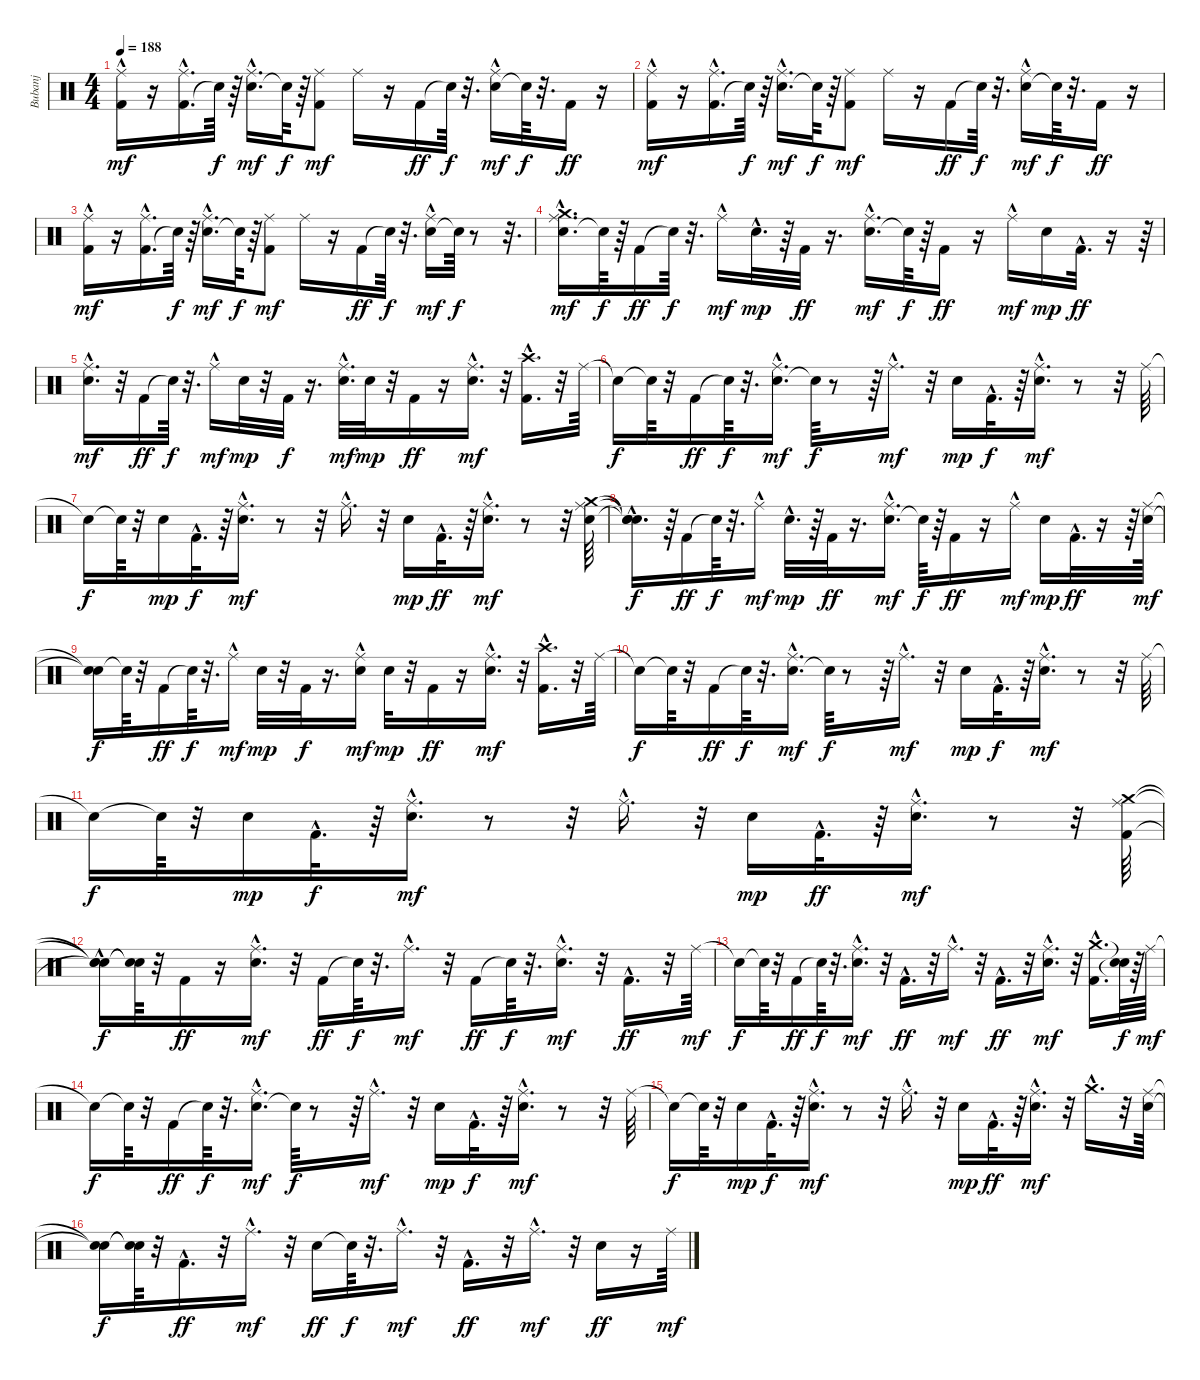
\track ("Bubanj" "Bubanj") {instrument percussion}
\staff {score}
\articulation defaults
\ts (4 4)
\tempo 188
\clef neutral
\ks c
("Kick (hit) 2" "Ride (middle)"{hac}).16{dy mf} r.16 ("Kick (hit) 2"{hac} "Ride (middle)").16{d} "Snare (hit)"{t}.64{dy f} r.64 ("Electric Snare (hit)"{hac} "Ride (middle)").16{d dy mf} "Snare (hit)"{t}.64{dy f} r.64 ("Kick (hit) 2" "Ride (middle)").8{dy mf} "Ride (middle)".16 r.16 "Kick (hit) 2".16{dy ff} "Snare (hit)"{t}.64{dy f} r.32{d} ("Electric Snare (hit)" "Ride (middle)"{hac}).16{dy mf} "Snare (hit)"{t}.64{dy f} r.32{d} "Kick (hit) 2".16{dy ff} r.16 |
("Kick (hit) 2" "Ride (middle)"{hac}).16{dy mf} r.16 ("Kick (hit) 2"{hac} "Ride (middle)").16{d} "Snare (hit)"{t}.64{dy f} r.64 ("Electric Snare (hit)"{hac} "Ride (middle)").16{d dy mf} "Snare (hit)"{t}.64{dy f} r.64 ("Kick (hit) 2" "Ride (middle)").8{dy mf} "Ride (middle)".16 r.16 "Kick (hit) 2".16{dy ff} "Snare (hit)"{t}.64{dy f} r.32{d} ("Electric Snare (hit)" "Ride (middle)"{hac}).16{dy mf} "Snare (hit)"{t}.64{dy f} r.32{d} "Kick (hit) 2".16{dy ff} r.16 |
("Kick (hit) 2" "Ride (middle)"{hac}).16{dy mf} r.16 ("Kick (hit) 2"{hac} "Ride (middle)").16{d} "Snare (hit)"{t}.64{dy f} r.64 ("Electric Snare (hit)"{hac} "Ride (middle)").16{d dy mf} "Snare (hit)"{t}.64{dy f} r.64 ("Kick (hit) 2" "Ride (middle)").8{dy mf} "Ride (middle)".16 r.16 "Kick (hit) 2".16{dy ff} "Snare (hit)"{t}.64{dy f} r.32{d} ("Electric Snare (hit)" "Ride (middle)"{hac}).16{dy mf} "Snare (hit)"{t}.64{dy f} r.8 r.32{d} |
("Electric Snare (hit)"{hac} "Crash medium (hit)"{hac} "Ride (middle)"{hac}).16{d dy mf} "Snare (hit)"{t}.64{dy f} r.64 "Kick (hit) 2".16{dy ff} "Snare (hit)"{t}.64{dy f} r.32{d} "Ride (middle)"{hac}.16{dy mf} "Electric Snare (hit)"{hac}.32{d dy mp} r.64 "Kick (hit) 2".32{dy ff} r.16{d} ("Electric Snare (hit)"{hac} "Ride (middle)"{hac}).16{d dy mf} "Snare (hit)"{t}.64{dy f} r.64 "Kick (hit) 2".16{dy ff} r.16 "Ride (middle)"{hac}.16{dy mf} "Electric Snare (hit)".16{dy mp} "Kick (hit) 2"{hac}.32{d dy ff} r.16 r.64 |
("Electric Snare (hit)" "Ride (middle)"{hac}).16{d dy mf} r.32 "Kick (hit) 2".16{dy ff} "Snare (hit)"{t}.64{dy f} r.32{d} "Ride (middle)"{hac}.16{dy mf} "Electric Snare (hit)".32{dy mp} r.32 "Kick (hit) 2".32{dy f} r.16{d} ("Electric Snare (hit)" "Ride (middle)"{hac}).32{d dy mf} "Electric Snare (hit)".32{dy mp} r.32 "Kick (hit) 2".16{dy ff} r.16 ("Electric Snare (hit)"{hac} "Ride (middle)"{hac}).16{d dy mf} r.32 ("Kick (hit) 2" "Crash high (hit)"{hac}).16{d} r.32 "Ride (middle)".64 |
"Snare (hit)"{t}.16{dy f} "Snare (hit)"{t}.64 r.32 "Kick (hit) 2".16{dy ff} "Snare (hit)"{t}.64{dy f} r.32{d} ("Electric Snare (hit)"{hac} "Ride (middle)"{hac}).16{d dy mf} "Snare (hit)"{t}.64{dy f} r.8 r.64 "Ride (middle)"{hac}.16{d dy mf} r.32 "Electric Snare (hit)".16{dy mp} "Kick (hit) 2"{hac}.32{d dy f} r.64 ("Electric Snare (hit)"{hac} "Ride (middle)"{hac}).16{d dy mf} r.8 r.32 "Ride (middle)".64 |
"Snare (hit)"{t}.16{dy f} "Snare (hit)"{t}.64 r.32 "Electric Snare (hit)".16{dy mp} "Kick (hit) 2"{hac}.32{d dy f} r.64 ("Electric Snare (hit)"{hac} "Ride (middle)"{hac}).16{d dy mf} r.8 r.32 "Ride (middle)"{hac}.16{d} r.32 "Electric Snare (hit)".16{dy mp} "Kick (hit) 2"{hac}.32{d dy ff} r.64 ("Electric Snare (hit)"{hac} "Ride (middle)"{hac}).16{d dy mf} r.8 r.32 ("Electric Snare (hit)" "Ride (middle)" "Crash medium (hit)").64 |
("Snare (hit)"{hac t} "Snare (hit)"{t} "Snare (hit)"{t}).16{d dy f} r.64 "Kick (hit) 2".16{dy ff} "Snare (hit)"{t}.64{dy f} r.32{d} "Ride (middle)"{hac}.16{dy mf} "Electric Snare (hit)"{hac}.32{d dy mp} r.64 "Kick (hit) 2".32{dy ff} r.16{d} ("Electric Snare (hit)"{hac} "Ride (middle)"{hac}).16{d dy mf} "Snare (hit)"{t}.64{dy f} r.64 "Kick (hit) 2".16{dy ff} r.16 "Ride (middle)"{hac}.16{dy mf} "Electric Snare (hit)".16{dy mp} "Kick (hit) 2"{hac}.32{d dy ff} r.16 r.64 ("Electric Snare (hit)" "Ride (middle)").64{dy mf} |
("Snare (hit)"{t} "Snare (hit)"{t}).16{dy f} "Snare (hit)"{t}.64 r.32 "Kick (hit) 2".16{dy ff} "Snare (hit)"{t}.64{dy f} r.32{d} "Ride (middle)"{hac}.16{dy mf} "Electric Snare (hit)".32{dy mp} r.32 "Kick (hit) 2".32{dy f} r.16{d} ("Electric Snare (hit)" "Ride (middle)"{hac}).16{dy mf} "Electric Snare (hit)".32{dy mp} r.32 "Kick (hit) 2".16{dy ff} r.16 ("Electric Snare (hit)"{hac} "Ride (middle)"{hac}).16{d dy mf} r.32 ("Kick (hit) 2" "Crash high (hit)"{hac}).16{d} r.32 "Ride (middle)".64 |
"Snare (hit)"{t}.16{dy f} "Snare (hit)"{t}.64 r.32 "Kick (hit) 2".16{dy ff} "Snare (hit)"{t}.64{dy f} r.32{d} ("Electric Snare (hit)"{hac} "Ride (middle)"{hac}).16{d dy mf} "Snare (hit)"{t}.64{dy f} r.8 r.64 "Ride (middle)"{hac}.16{d dy mf} r.32 "Electric Snare (hit)".16{dy mp} "Kick (hit) 2"{hac}.32{d dy f} r.64 ("Electric Snare (hit)"{hac} "Ride (middle)"{hac}).16{d dy mf} r.8 r.32 "Ride (middle)".64 |
"Snare (hit)"{t}.16{dy f} "Snare (hit)"{t}.64 r.32 "Electric Snare (hit)".16{dy mp} "Kick (hit) 2"{hac}.32{d dy f} r.64 ("Electric Snare (hit)"{hac} "Ride (middle)"{hac}).16{d dy mf} r.8 r.32 "Ride (middle)"{hac}.16{d} r.32 "Electric Snare (hit)".16{dy mp} "Kick (hit) 2"{hac}.32{d dy ff} r.64 ("Electric Snare (hit)"{hac} "Ride (middle)"{hac}).16{d dy mf} r.8 r.32 ("Kick (hit) 2" "Ride (middle)" "Crash medium (hit)").64 |
("Snare (hit)"{hac t} "Snare (hit)"{t} "Snare (hit)"{t}).16{dy f} ("Snare (hit)"{t} "Snare (hit)"{t}).64 r.32 "Kick (hit) 2".16{dy ff} r.16 ("Electric Snare (hit)"{hac} "Ride (middle)"{hac}).16{d dy mf} r.32 "Kick (hit) 2".16{dy ff} "Snare (hit)"{t}.64{dy f} r.32{d} "Ride (middle)"{hac}.16{d dy mf} r.32 "Kick (hit) 2".16{dy ff} "Snare (hit)"{t}.64{dy f} r.32{d} ("Electric Snare (hit)" "Ride (middle)"{hac}).16{d dy mf} r.32 "Kick (hit) 2"{hac}.16{d dy ff} r.32 "Ride (middle)".64{dy mf} |
"Snare (hit)"{t}.16{dy f} "Snare (hit)"{t}.64 r.32 "Kick (hit) 2".16{dy ff} "Snare (hit)"{t}.64{dy f} r.32{d} ("Electric Snare (hit)" "Ride (middle)"{hac}).16{d dy mf} r.32 "Kick (hit) 2"{hac}.16{d dy ff} r.32 "Ride (middle)"{hac}.16{d dy mf} r.32 "Kick (hit) 2"{hac}.16{d dy ff} r.32 ("Electric Snare (hit)" "Ride (middle)"{hac}).16{d dy mf} r.32 ("Kick (hit) 2"{hac} "Crash medium (hit)"{hac}).16{d} ("Snare (hit)"{t} "Snare (hit)"{t}).64{dy f} r.64 "Ride (middle)".64{dy mf} |
"Snare (hit)"{t}.16{dy f} "Snare (hit)"{t}.64 r.32 "Kick (hit) 2".16{dy ff} "Snare (hit)"{t}.64{dy f} r.32{d} ("Electric Snare (hit)"{hac} "Ride (middle)"{hac}).16{d dy mf} "Snare (hit)"{t}.64{dy f} r.8 r.64 "Ride (middle)"{hac}.16{d dy mf} r.32 "Electric Snare (hit)".16{dy mp} "Kick (hit) 2"{hac}.32{d dy f} r.64 ("Electric Snare (hit)"{hac} "Ride (middle)"{hac}).16{d dy mf} r.8 r.32 "Ride (middle)".64 |
"Snare (hit)"{t}.16{dy f} "Snare (hit)"{t}.64 r.32 "Electric Snare (hit)".16{dy mp} "Kick (hit) 2"{hac}.32{d dy f} r.64 ("Electric Snare (hit)"{hac} "Ride (middle)"{hac}).16{d dy mf} r.8 r.32 "Ride (middle)"{hac}.16{d} r.32 "Electric Snare (hit)".16{dy mp} "Kick (hit) 2"{hac}.32{d dy ff} r.64 ("Electric Snare (hit)"{hac} "Ride (middle)"{hac}).16{d dy mf} r.32 "Crash medium (hit)"{hac}.16{d} r.32 ("Electric Snare (hit)" "Ride (middle)").64 |
("Snare (hit)"{t} "Snare (hit)"{t}).16{dy f} ("Snare (hit)"{t} "Snare (hit)"{t}).64 r.32 "Kick (hit) 2"{hac}.16{d dy ff} r.32 "Ride (middle)"{hac}.16{d dy mf} r.32 "Electric Snare (hit)".16{dy ff} "Snare (hit)"{t}.64{dy f} r.32{d} "Ride (middle)"{hac}.16{d dy mf} r.32 "Kick (hit) 2"{hac}.16{d dy ff} r.32 "Ride (middle)"{hac}.16{d dy mf} r.32 "Electric Snare (hit)".16{dy ff} r.16 "Ride (middle)".64{dy mf}
